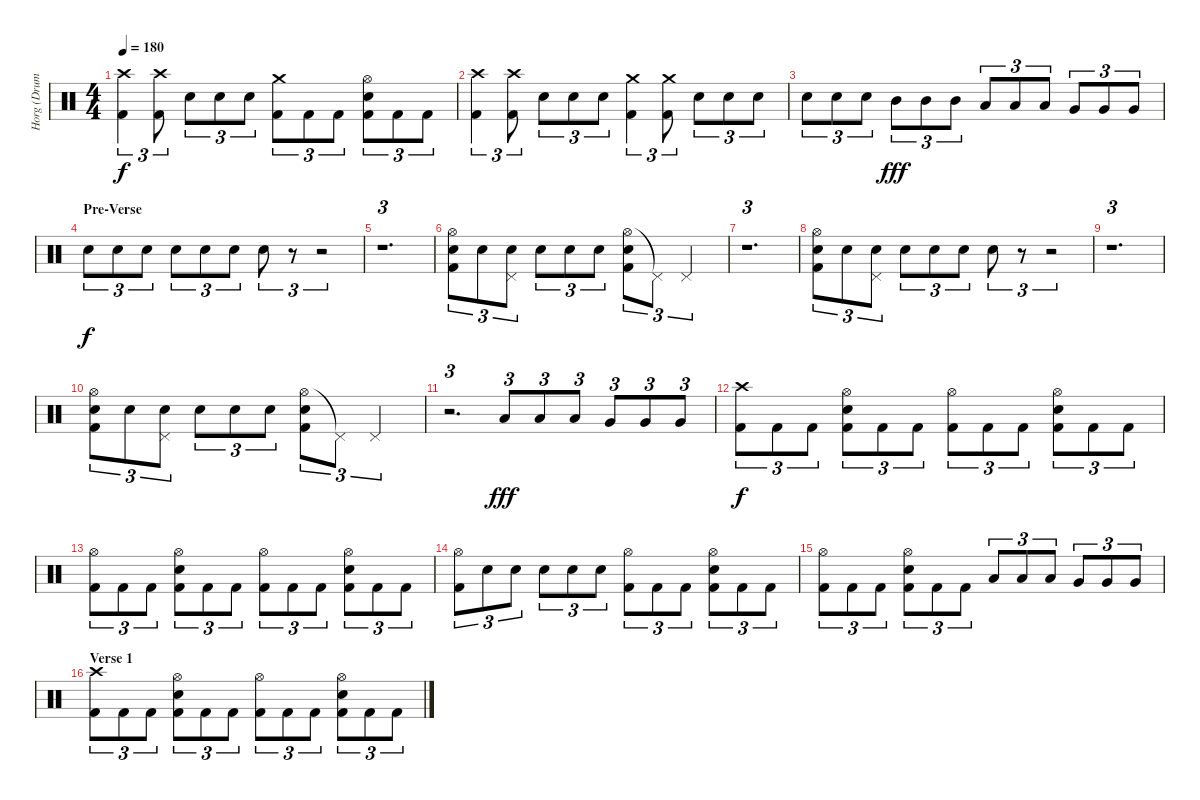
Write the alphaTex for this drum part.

\track ("Horg (Drums)" "Horg (Drum") {instrument percussion}
\staff {score}
\articulation defaults
\ts (4 4)
\tempo 180
\clef neutral
\ks c
("Crash high (hit)" "Kick (hit) 2").4{tu (3 2) dy f} ("Crash high (hit)" "Kick (hit) 2").8{tu (3 2)} "Electric Snare (hit)".8{tu (3 2)} "Electric Snare (hit)".8{tu (3 2)} "Electric Snare (hit)".8{tu (3 2)} ("Crash medium (hit)" "Kick (hit) 2").8{tu (3 2)} "Kick (hit) 2".8{tu (3 2)} "Kick (hit) 2".8{tu (3 2)} ("Hi-Hat (open)" "Electric Snare (hit)" "Kick (hit) 2").8{tu (3 2)} "Kick (hit) 2".8{tu (3 2)} "Kick (hit) 2".8{tu (3 2)} |
("Crash high (hit)" "Kick (hit) 2").4{tu (3 2)} ("Crash high (hit)" "Kick (hit) 2").8{tu (3 2)} "Electric Snare (hit)".8{tu (3 2)} "Electric Snare (hit)".8{tu (3 2)} "Electric Snare (hit)".8{tu (3 2)} ("Crash medium (hit)" "Kick (hit) 2").4{tu (3 2)} ("Crash medium (hit)" "Kick (hit) 2").8{tu (3 2)} "Electric Snare (hit)".8{tu (3 2)} "Electric Snare (hit)".8{tu (3 2)} "Electric Snare (hit)".8{tu (3 2)} |
"Electric Snare (hit)".8{tu (3 2)} "Electric Snare (hit)".8{tu (3 2)} "Electric Snare (hit)".8{tu (3 2)} "Mid Tom (hit)".8{tu (3 2) dy fff} "Mid Tom (hit)".8{tu (3 2)} "Mid Tom (hit)".8{tu (3 2)} "Low Tom (hit)".8{tu (3 2)} "Low Tom (hit)".8{tu (3 2)} "Low Tom (hit)".8{tu (3 2)} "Very Low Tom (hit)".8{tu (3 2)} "Very Low Tom (hit)".8{tu (3 2)} "Very Low Tom (hit)".8{tu (3 2)} |
\section ("" "Pre-Verse")
"Electric Snare (hit)".8{tu (3 2) dy f} "Electric Snare (hit)".8{tu (3 2)} "Electric Snare (hit)".8{tu (3 2)} "Electric Snare (hit)".8{tu (3 2)} "Electric Snare (hit)".8{tu (3 2)} "Electric Snare (hit)".8{tu (3 2)} "Electric Snare (hit)".8{tu (3 2)} r.8{tu (3 2)} r.2{tu (3 2)} |
r.1{d tu (3 2)} |
("Hi-Hat (open)" "Electric Snare (hit)" "Kick (hit) 2").8{tu (3 2)} "Electric Snare (hit)".8{tu (3 2)} ("Pedal Hi-Hat (hit)" "Electric Snare (hit)").8{tu (3 2)} "Electric Snare (hit)".8{tu (3 2)} "Electric Snare (hit)".8{tu (3 2)} "Electric Snare (hit)".8{tu (3 2)} ("Hi-Hat (open)" "Electric Snare (hit)" "Kick (hit) 2").8{tu (3 2)} "Pedal Hi-Hat (hit)"{t}.8{tu (3 2)} "Pedal Hi-Hat (hit)".2{tu (3 2)} |
r.1{d tu (3 2)} |
("Hi-Hat (open)" "Electric Snare (hit)" "Kick (hit) 2").8{tu (3 2)} "Electric Snare (hit)".8{tu (3 2)} ("Pedal Hi-Hat (hit)" "Electric Snare (hit)").8{tu (3 2)} "Electric Snare (hit)".8{tu (3 2)} "Electric Snare (hit)".8{tu (3 2)} "Electric Snare (hit)".8{tu (3 2)} "Electric Snare (hit)".8{tu (3 2)} r.8{tu (3 2)} r.2{tu (3 2)} |
r.1{d tu (3 2)} |
("Hi-Hat (open)" "Electric Snare (hit)" "Kick (hit) 2").8{tu (3 2)} "Electric Snare (hit)".8{tu (3 2)} ("Pedal Hi-Hat (hit)" "Electric Snare (hit)").8{tu (3 2)} "Electric Snare (hit)".8{tu (3 2)} "Electric Snare (hit)".8{tu (3 2)} "Electric Snare (hit)".8{tu (3 2)} ("Hi-Hat (open)" "Electric Snare (hit)" "Kick (hit) 2").8{tu (3 2)} "Pedal Hi-Hat (hit)"{t}.8{tu (3 2)} "Pedal Hi-Hat (hit)".2{tu (3 2)} |
r.2{d tu (3 2)} "Low Tom (hit)".8{tu (3 2) dy fff} "Low Tom (hit)".8{tu (3 2)} "Low Tom (hit)".8{tu (3 2)} "Very Low Tom (hit)".8{tu (3 2)} "Very Low Tom (hit)".8{tu (3 2)} "Very Low Tom (hit)".8{tu (3 2)} |
("Crash high (hit)" "Kick (hit) 2").8{tu (3 2) dy f} "Kick (hit) 2".8{tu (3 2)} "Kick (hit) 2".8{tu (3 2)} ("Hi-Hat (open)" "Electric Snare (hit)" "Kick (hit) 2").8{tu (3 2)} "Kick (hit) 2".8{tu (3 2)} "Kick (hit) 2".8{tu (3 2)} ("Hi-Hat (open)" "Kick (hit) 2").8{tu (3 2)} "Kick (hit) 2".8{tu (3 2)} "Kick (hit) 2".8{tu (3 2)} ("Hi-Hat (open)" "Electric Snare (hit)" "Kick (hit) 2").8{tu (3 2)} "Kick (hit) 2".8{tu (3 2)} "Kick (hit) 2".8{tu (3 2)} |
("Hi-Hat (open)" "Kick (hit) 2").8{tu (3 2)} "Kick (hit) 2".8{tu (3 2)} "Kick (hit) 2".8{tu (3 2)} ("Hi-Hat (open)" "Electric Snare (hit)" "Kick (hit) 2").8{tu (3 2)} "Kick (hit) 2".8{tu (3 2)} "Kick (hit) 2".8{tu (3 2)} ("Hi-Hat (open)" "Kick (hit) 2").8{tu (3 2)} "Kick (hit) 2".8{tu (3 2)} "Kick (hit) 2".8{tu (3 2)} ("Hi-Hat (open)" "Electric Snare (hit)" "Kick (hit) 2").8{tu (3 2)} "Kick (hit) 2".8{tu (3 2)} "Kick (hit) 2".8{tu (3 2)} |
("Hi-Hat (open)" "Kick (hit) 2").8{tu (3 2)} "Electric Snare (hit)".8{tu (3 2)} "Electric Snare (hit)".8{tu (3 2)} "Electric Snare (hit)".8{tu (3 2)} "Electric Snare (hit)".8{tu (3 2)} "Electric Snare (hit)".8{tu (3 2)} ("Hi-Hat (open)" "Kick (hit) 2").8{tu (3 2)} "Kick (hit) 2".8{tu (3 2)} "Kick (hit) 2".8{tu (3 2)} ("Hi-Hat (open)" "Electric Snare (hit)" "Kick (hit) 2").8{tu (3 2)} "Kick (hit) 2".8{tu (3 2)} "Kick (hit) 2".8{tu (3 2)} |
("Hi-Hat (open)" "Kick (hit) 2").8{tu (3 2)} "Kick (hit) 2".8{tu (3 2)} "Kick (hit) 2".8{tu (3 2)} ("Hi-Hat (open)" "Electric Snare (hit)" "Kick (hit) 2").8{tu (3 2)} "Kick (hit) 2".8{tu (3 2)} "Kick (hit) 2".8{tu (3 2)} "Low Tom (hit)".8{tu (3 2)} "Low Tom (hit)".8{tu (3 2)} "Low Tom (hit)".8{tu (3 2)} "Very Low Tom (hit)".8{tu (3 2)} "Very Low Tom (hit)".8{tu (3 2)} "Very Low Tom (hit)".8{tu (3 2)} |
\section ("" "Verse 1")
("Crash high (hit)" "Kick (hit) 2").8{tu (3 2)} "Kick (hit) 2".8{tu (3 2)} "Kick (hit) 2".8{tu (3 2)} ("Hi-Hat (open)" "Electric Snare (hit)" "Kick (hit) 2").8{tu (3 2)} "Kick (hit) 2".8{tu (3 2)} "Kick (hit) 2".8{tu (3 2)} ("Hi-Hat (open)" "Kick (hit) 2").8{tu (3 2)} "Kick (hit) 2".8{tu (3 2)} "Kick (hit) 2".8{tu (3 2)} ("Hi-Hat (open)" "Electric Snare (hit)" "Kick (hit) 2").8{tu (3 2)} "Kick (hit) 2".8{tu (3 2)} "Kick (hit) 2".8{tu (3 2)}
